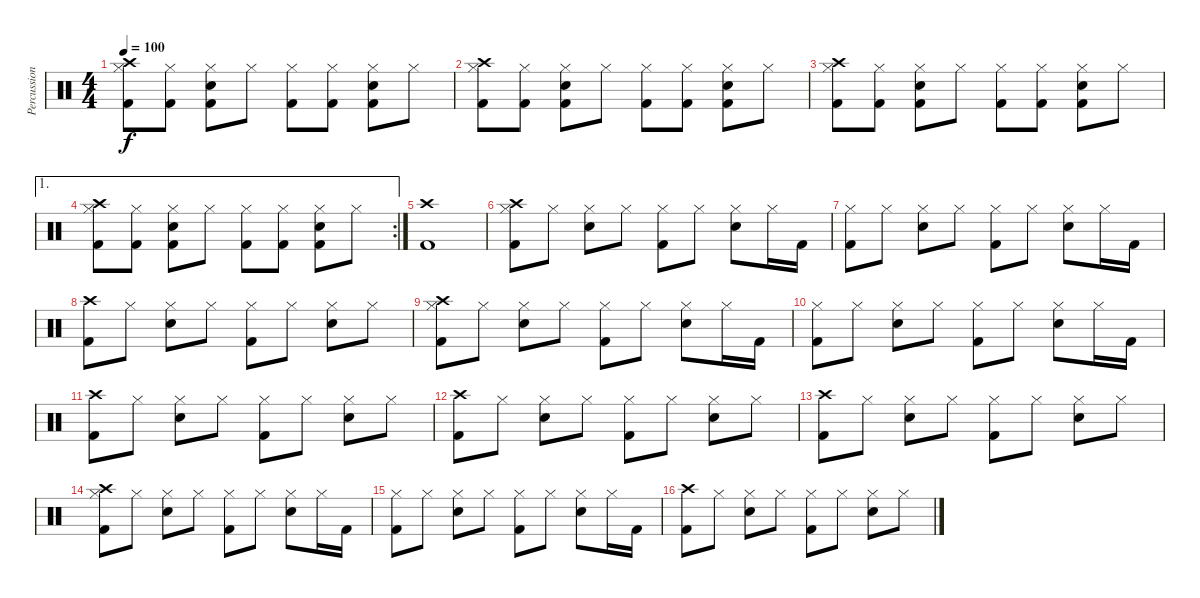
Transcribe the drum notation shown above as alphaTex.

\track ("Percussion" "Percussion") {instrument percussion}
\staff {score}
\articulation defaults
\ts (4 4)
\tempo 100
\clef neutral
\ks c
("Kick (hit) 2" "Hi-Hat (closed)" "Crash high (hit)").8{dy f} ("Kick (hit) 2" "Hi-Hat (closed)").8 ("Kick (hit) 2" "Snare (hit) 2" "Hi-Hat (closed)").8 "Hi-Hat (closed)".8 ("Kick (hit) 2" "Hi-Hat (closed)").8 ("Kick (hit) 2" "Hi-Hat (closed)").8 ("Kick (hit) 2" "Snare (hit) 2" "Hi-Hat (closed)").8 "Hi-Hat (closed)".8 |
("Kick (hit) 2" "Hi-Hat (closed)" "Crash high (hit)").8 ("Kick (hit) 2" "Hi-Hat (closed)").8 ("Kick (hit) 2" "Snare (hit) 2" "Hi-Hat (closed)").8 "Hi-Hat (closed)".8 ("Kick (hit) 2" "Hi-Hat (closed)").8 ("Kick (hit) 2" "Hi-Hat (closed)").8 ("Kick (hit) 2" "Snare (hit) 2" "Hi-Hat (closed)").8 "Hi-Hat (closed)".8 |
("Kick (hit) 2" "Hi-Hat (closed)" "Crash high (hit)").8 ("Kick (hit) 2" "Hi-Hat (closed)").8 ("Kick (hit) 2" "Snare (hit) 2" "Hi-Hat (closed)").8 "Hi-Hat (closed)".8 ("Kick (hit) 2" "Hi-Hat (closed)").8 ("Kick (hit) 2" "Hi-Hat (closed)").8 ("Kick (hit) 2" "Snare (hit) 2" "Hi-Hat (closed)").8 "Hi-Hat (closed)".8 |
\ae 1
\rc 2
("Kick (hit) 2" "Hi-Hat (closed)" "Crash high (hit)").8 ("Kick (hit) 2" "Hi-Hat (closed)").8 ("Kick (hit) 2" "Snare (hit) 2" "Hi-Hat (closed)").8 "Hi-Hat (closed)".8 ("Kick (hit) 2" "Hi-Hat (closed)").8 ("Kick (hit) 2" "Hi-Hat (closed)").8 ("Kick (hit) 2" "Snare (hit) 2" "Hi-Hat (closed)").8 "Hi-Hat (closed)".8 |
("Kick (hit) 2" "Crash high (hit)").1 |
("Kick (hit) 2" "Hi-Hat (closed)" "Crash high (hit)").8 "Hi-Hat (closed)".8 ("Snare (hit) 2" "Hi-Hat (closed)").8 "Hi-Hat (closed)".8 ("Kick (hit) 2" "Hi-Hat (closed)").8 "Hi-Hat (closed)".8 ("Snare (hit) 2" "Hi-Hat (closed)").8 "Hi-Hat (closed)".16 "Kick (hit) 2".16 |
("Kick (hit) 2" "Hi-Hat (closed)").8 "Hi-Hat (closed)".8 ("Snare (hit) 2" "Hi-Hat (closed)").8 "Hi-Hat (closed)".8 ("Kick (hit) 2" "Hi-Hat (closed)").8 "Hi-Hat (closed)".8 ("Snare (hit) 2" "Hi-Hat (closed)").8 "Hi-Hat (closed)".16 "Kick (hit) 2".16 |
("Kick (hit) 2" "Crash high (hit)").8 "Hi-Hat (closed)".8 ("Snare (hit) 2" "Hi-Hat (closed)").8 "Hi-Hat (closed)".8 ("Kick (hit) 2" "Hi-Hat (closed)").8 "Hi-Hat (closed)".8 ("Snare (hit) 2" "Hi-Hat (closed)").8 "Hi-Hat (closed)".8 |
("Kick (hit) 2" "Hi-Hat (closed)" "Crash high (hit)").8 "Hi-Hat (closed)".8 ("Snare (hit) 2" "Hi-Hat (closed)").8 "Hi-Hat (closed)".8 ("Kick (hit) 2" "Hi-Hat (closed)").8 "Hi-Hat (closed)".8 ("Snare (hit) 2" "Hi-Hat (closed)").8 "Hi-Hat (closed)".16 "Kick (hit) 2".16 |
("Kick (hit) 2" "Hi-Hat (closed)").8 "Hi-Hat (closed)".8 ("Snare (hit) 2" "Hi-Hat (closed)").8 "Hi-Hat (closed)".8 ("Kick (hit) 2" "Hi-Hat (closed)").8 "Hi-Hat (closed)".8 ("Snare (hit) 2" "Hi-Hat (closed)").8 "Hi-Hat (closed)".16 "Kick (hit) 2".16 |
("Kick (hit) 2" "Crash high (hit)").8 "Hi-Hat (closed)".8 ("Snare (hit) 2" "Hi-Hat (closed)").8 "Hi-Hat (closed)".8 ("Kick (hit) 2" "Hi-Hat (closed)").8 "Hi-Hat (closed)".8 ("Snare (hit) 2" "Hi-Hat (closed)").8 "Hi-Hat (closed)".8 |
("Kick (hit) 2" "Crash high (hit)").8 "Hi-Hat (closed)".8 ("Snare (hit) 2" "Hi-Hat (closed)").8 "Hi-Hat (closed)".8 ("Kick (hit) 2" "Hi-Hat (closed)").8 "Hi-Hat (closed)".8 ("Snare (hit) 2" "Hi-Hat (closed)").8 "Hi-Hat (closed)".8 |
("Kick (hit) 2" "Crash high (hit)").8 "Hi-Hat (closed)".8 ("Snare (hit) 2" "Hi-Hat (closed)").8 "Hi-Hat (closed)".8 ("Kick (hit) 2" "Hi-Hat (closed)").8 "Hi-Hat (closed)".8 ("Snare (hit) 2" "Hi-Hat (closed)").8 "Hi-Hat (closed)".8 |
("Kick (hit) 2" "Hi-Hat (closed)" "Crash high (hit)").8 "Hi-Hat (closed)".8 ("Snare (hit) 2" "Hi-Hat (closed)").8 "Hi-Hat (closed)".8 ("Kick (hit) 2" "Hi-Hat (closed)").8 "Hi-Hat (closed)".8 ("Snare (hit) 2" "Hi-Hat (closed)").8 "Hi-Hat (closed)".16 "Kick (hit) 2".16 |
("Kick (hit) 2" "Hi-Hat (closed)").8 "Hi-Hat (closed)".8 ("Snare (hit) 2" "Hi-Hat (closed)").8 "Hi-Hat (closed)".8 ("Kick (hit) 2" "Hi-Hat (closed)").8 "Hi-Hat (closed)".8 ("Snare (hit) 2" "Hi-Hat (closed)").8 "Hi-Hat (closed)".16 "Kick (hit) 2".16 |
("Kick (hit) 2" "Crash high (hit)").8 "Hi-Hat (closed)".8 ("Snare (hit) 2" "Hi-Hat (closed)").8 "Hi-Hat (closed)".8 ("Kick (hit) 2" "Hi-Hat (closed)").8 "Hi-Hat (closed)".8 ("Snare (hit) 2" "Hi-Hat (closed)").8 "Hi-Hat (closed)".8
